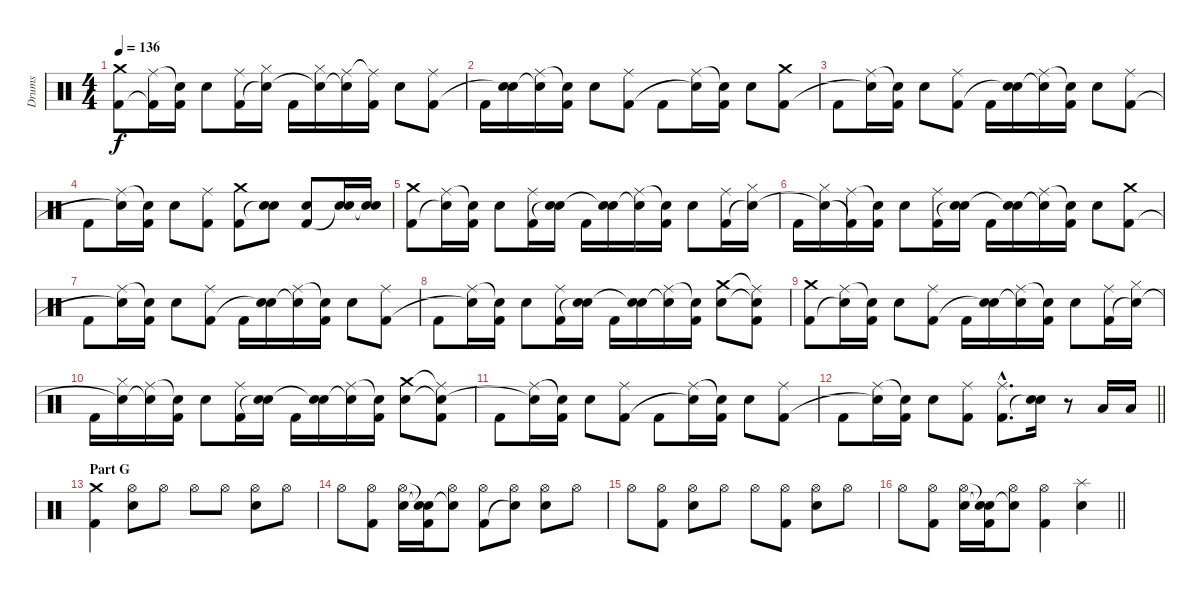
\track ("Drums" "Drums") {instrument percussion}
\staff {score}
\articulation defaults
\ts (4 4)
\tempo 136
\clef neutral
\ks c
("Crash medium (hit)" "Kick (hit) 2").8{dy f} ("Ride (middle)" "Kick (hit) 2"{t}).16 ("Snare (hit)"{t} "Kick (hit) 2").16 "Electric Snare (hit)".8 ("Ride (middle)" "Kick (hit) 2").16 ("Hi-Hat (closed)" "Snare (hit)"{t}).16 "Kick (hit) 2".16 ("Hi-Hat (closed)" "Snare (hit)"{t}).16 ("Ride (middle)" "Snare (hit)"{t}).16 ("Ride (middle)"{t} "Kick (hit) 2").16 "Electric Snare (hit)".8 ("Ride (middle)" "Kick (hit) 2").8 |
"Kick (hit) 2".16 ("Electric Snare (hit)" "Snare (hit)"{t}).16 ("Ride (middle)" "Snare (hit)"{t}).16 ("Snare (hit)"{t} "Kick (hit) 2").16 "Electric Snare (hit)".8 ("Ride (middle)" "Kick (hit) 2").8 "Kick (hit) 2".8 ("Ride (middle)" "Snare (hit)"{t}).16 ("Snare (hit)"{t} "Kick (hit) 2").16 "Electric Snare (hit)".8 ("Crash medium (hit)" "Kick (hit) 2").8 |
"Kick (hit) 2".8 ("Ride (middle)" "Snare (hit)"{t}).16 ("Snare (hit)"{t} "Kick (hit) 2").16 "Electric Snare (hit)".8 ("Ride (middle)" "Kick (hit) 2").8 "Kick (hit) 2".16 ("Electric Snare (hit)" "Snare (hit)"{t}).16 ("Ride (middle)" "Snare (hit)"{t}).16 ("Snare (hit)"{t} "Kick (hit) 2").16 "Electric Snare (hit)".8 ("Ride (middle)" "Kick (hit) 2").8 |
"Kick (hit) 2".8 ("Ride (middle)" "Snare (hit)"{t}).16 ("Snare (hit)"{t} "Kick (hit) 2").16 "Electric Snare (hit)".8 ("Ride (middle)" "Kick (hit) 2").8 ("Crash medium (hit)" "Kick (hit) 2").8 ("Electric Snare (hit)" "Snare (hit)"{t}).8 ("Electric Snare (hit)" "Kick (hit) 2").8 ("Electric Snare (hit)" "Snare (hit)"{t}).16 ("Electric Snare (hit)" "Snare (hit)"{t}).16 |
("Crash medium (hit)" "Kick (hit) 2").8 ("Ride (middle)" "Snare (hit)"{t}).16 ("Snare (hit)"{t} "Kick (hit) 2").16 "Electric Snare (hit)".8 ("Ride (middle)" "Kick (hit) 2").16 ("Electric Snare (hit)" "Snare (hit)"{t}).16 "Kick (hit) 2".16 ("Electric Snare (hit)" "Snare (hit)"{t}).16 ("Ride (middle)" "Snare (hit)"{t}).16 ("Snare (hit)"{t} "Kick (hit) 2").16 "Electric Snare (hit)".8 ("Ride (middle)" "Kick (hit) 2").16 ("Hi-Hat (closed)" "Snare (hit)"{t}).16 |
"Kick (hit) 2".16 ("Hi-Hat (closed)" "Snare (hit)"{t}).16 ("Ride (middle)" "Kick (hit) 2"{t}).16 ("Snare (hit)"{t} "Kick (hit) 2").16 "Electric Snare (hit)".8 ("Ride (middle)" "Kick (hit) 2").16 ("Electric Snare (hit)" "Snare (hit)"{t}).16 "Kick (hit) 2".16 ("Electric Snare (hit)" "Snare (hit)"{t}).16 ("Ride (middle)" "Snare (hit)"{t}).16 ("Snare (hit)"{t} "Kick (hit) 2").16 "Electric Snare (hit)".8 ("Crash medium (hit)" "Kick (hit) 2").8 |
"Kick (hit) 2".8 ("Ride (middle)" "Snare (hit)"{t}).16 ("Snare (hit)"{t} "Kick (hit) 2").16 "Electric Snare (hit)".8 ("Ride (middle)" "Kick (hit) 2").8 "Kick (hit) 2".16 ("Electric Snare (hit)" "Snare (hit)"{t}).16 ("Ride (middle)" "Snare (hit)"{t}).16 ("Snare (hit)"{t} "Kick (hit) 2").16 "Electric Snare (hit)".8 ("Ride (middle)" "Kick (hit) 2").8 |
"Kick (hit) 2".8 ("Ride (middle)" "Snare (hit)"{t}).16 ("Snare (hit)"{t} "Kick (hit) 2").16 "Electric Snare (hit)".8 ("Ride (middle)" "Kick (hit) 2").16 ("Electric Snare (hit)" "Snare (hit)"{t}).16 "Kick (hit) 2".16 ("Electric Snare (hit)" "Snare (hit)"{t}).16 ("Ride (middle)" "Snare (hit)"{t}).16 ("Snare (hit)"{t} "Kick (hit) 2").16 ("Crash medium (hit)" "Electric Snare (hit)").8 ("Ride (middle)"{t} "Snare (hit)"{t} "Kick (hit) 2").8 |
("Crash medium (hit)" "Kick (hit) 2").8 ("Ride (middle)" "Snare (hit)"{t}).16 ("Snare (hit)"{t} "Kick (hit) 2").16 "Electric Snare (hit)".8 ("Ride (middle)" "Kick (hit) 2").8 "Kick (hit) 2".16 ("Electric Snare (hit)" "Snare (hit)"{t}).16 ("Ride (middle)" "Snare (hit)"{t}).16 ("Snare (hit)"{t} "Kick (hit) 2").16 "Electric Snare (hit)".8 ("Ride (middle)" "Kick (hit) 2").16 ("Hi-Hat (closed)" "Snare (hit)"{t}).16 |
"Kick (hit) 2".16 ("Hi-Hat (closed)" "Snare (hit)"{t}).16 ("Ride (middle)" "Snare (hit)"{t}).16 ("Snare (hit)"{t} "Kick (hit) 2").16 "Electric Snare (hit)".8 ("Ride (middle)" "Kick (hit) 2").16 ("Electric Snare (hit)" "Snare (hit)"{t}).16 "Kick (hit) 2".16 ("Electric Snare (hit)" "Snare (hit)"{t}).16 ("Ride (middle)" "Snare (hit)"{t}).16 ("Snare (hit)"{t} "Kick (hit) 2").16 ("Crash medium (hit)" "Electric Snare (hit)").8 ("Ride (middle)"{t} "Snare (hit)"{t} "Kick (hit) 2").8 |
"Kick (hit) 2".8 ("Ride (middle)" "Snare (hit)"{t}).16 ("Snare (hit)"{t} "Kick (hit) 2").16 "Electric Snare (hit)".8 ("Ride (middle)" "Kick (hit) 2").8 "Kick (hit) 2".8 ("Ride (middle)" "Snare (hit)"{t}).16 ("Snare (hit)"{t} "Kick (hit) 2").16 "Electric Snare (hit)".8 ("Ride (middle)" "Kick (hit) 2").8 |
\barLineRight lightlight "Kick (hit) 2".8
("Ride (middle)" "Snare (hit)"{t}).16 ("Snare (hit)"{t} "Kick (hit) 2").16 "Electric Snare (hit)".8 ("Ride (middle)" "Kick (hit) 2").8 ("Ride (middle)"{hac} "Kick (hit) 2"{hac}).8{d} ("Electric Snare (hit)" "Snare (hit)"{t}).16 r.8 "Low Floor Tom (hit)".16 "Low Floor Tom (hit)".16 |
\section ("" "Part G")
("Crash medium (hit)" "Kick (hit) 2").4 ("Hi-Hat (open)" "Electric Snare (hit)").8 "Hi-Hat (open)".8 "Hi-Hat (open)".8 "Hi-Hat (open)".8 ("Hi-Hat (open)" "Electric Snare (hit)").8 "Hi-Hat (open)".8 |
"Hi-Hat (open)".8 ("Hi-Hat (open)" "Kick (hit) 2").8 ("Hi-Hat (open)" "Electric Snare (hit)").16 ("Snare (hit)"{t} "Snare (hit)"{t} "Kick (hit) 2").16 ("Hi-Hat (open)" "Snare (hit)"{t}).8 ("Hi-Hat (open)" "Kick (hit) 2").8 ("Hi-Hat (open)" "Snare (hit)"{t}).8 ("Hi-Hat (open)" "Electric Snare (hit)").8 "Hi-Hat (open)".8 |
"Hi-Hat (open)".8 ("Hi-Hat (open)" "Kick (hit) 2").8 ("Hi-Hat (open)" "Electric Snare (hit)").8 "Hi-Hat (open)".8 "Hi-Hat (open)".8 ("Hi-Hat (open)" "Kick (hit) 2").8 ("Hi-Hat (open)" "Electric Snare (hit)").8 "Hi-Hat (open)".8 |
\barLineRight lightlight "Hi-Hat (open)".8
("Hi-Hat (open)" "Kick (hit) 2").8 ("Hi-Hat (open)" "Electric Snare (hit)").16 ("Snare (hit)"{t} "Snare (hit)"{t} "Kick (hit) 2").16 ("Hi-Hat (open)" "Snare (hit)"{t}).8 ("Hi-Hat (open)" "Kick (hit) 2").4 ("Splash (hit)" "Electric Snare (hit)").4
